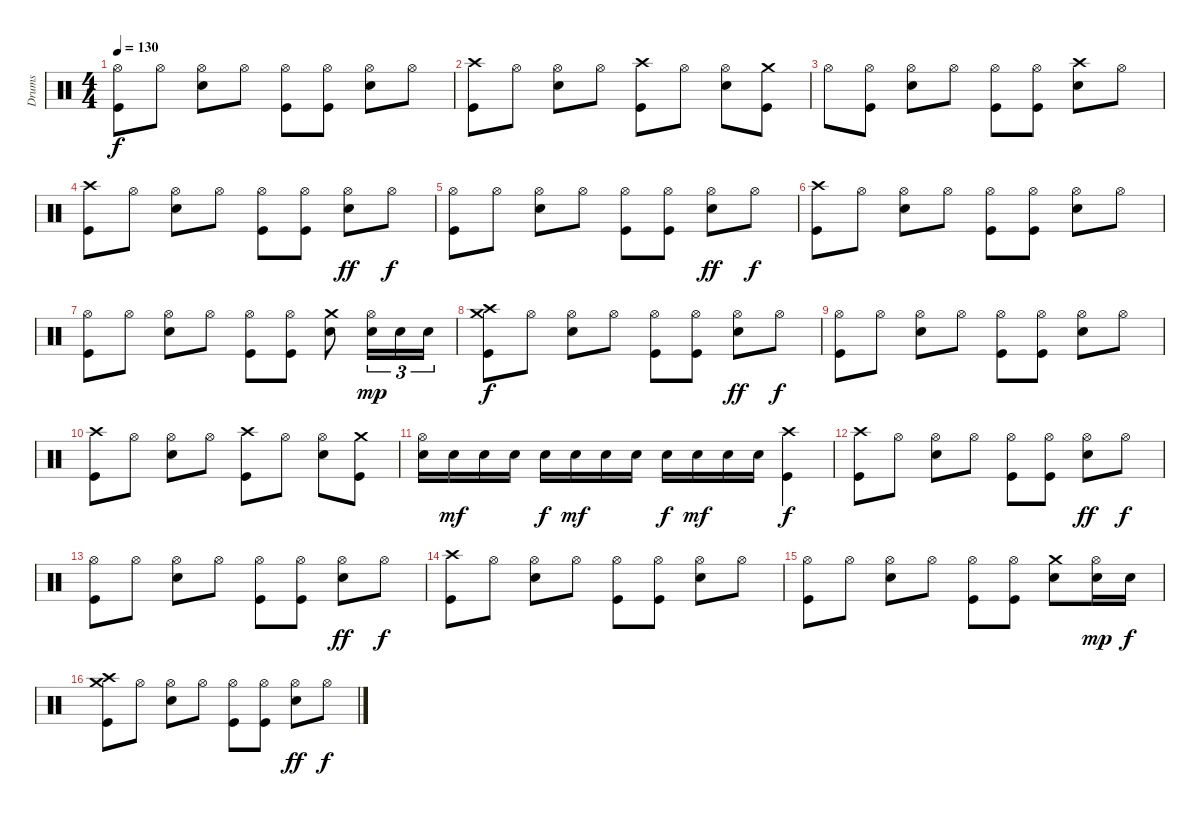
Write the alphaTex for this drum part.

\track ("Drums" "Drums") {instrument percussion}
\staff {score}
\articulation defaults
\ts (4 4)
\tempo 130
\clef neutral
\ks c
("Hi-Hat (open)" "Kick (hit)").8{dy f} "Hi-Hat (open)".8 ("Hi-Hat (open)" "Snare (hit) 2").8 "Hi-Hat (open)".8 ("Hi-Hat (open)" "Kick (hit)").8 ("Hi-Hat (open)" "Kick (hit)").8 ("Hi-Hat (open)" "Snare (hit) 2").8 "Hi-Hat (open)".8 |
("Crash high (hit)" "Kick (hit)").8 "Hi-Hat (open)".8 ("Hi-Hat (open)" "Snare (hit) 2").8 "Hi-Hat (open)".8 ("Crash high (hit)" "Kick (hit)").8 "Hi-Hat (open)".8 ("Hi-Hat (open)" "Snare (hit) 2").8 ("Crash medium (hit)" "Kick (hit)").8 |
"Hi-Hat (open)".8 ("Hi-Hat (open)" "Kick (hit)").8 ("Hi-Hat (open)" "Snare (hit) 2").8 "Hi-Hat (open)".8 ("Hi-Hat (open)" "Kick (hit)").8 ("Hi-Hat (open)" "Kick (hit)").8 ("Crash high (hit)" "Snare (hit) 2").8 "Hi-Hat (open)".8 |
("Crash high (hit)" "Kick (hit)").8 "Hi-Hat (open)".8 ("Hi-Hat (open)" "Snare (hit) 2").8 "Hi-Hat (open)".8 ("Hi-Hat (open)" "Kick (hit)").8 ("Hi-Hat (open)" "Kick (hit)").8 ("Hi-Hat (open)" "Snare (hit) 2").8{dy ff} "Hi-Hat (open)".8{dy f} |
("Hi-Hat (open)" "Kick (hit)").8 "Hi-Hat (open)".8 ("Hi-Hat (open)" "Snare (hit) 2").8 "Hi-Hat (open)".8 ("Hi-Hat (open)" "Kick (hit)").8 ("Hi-Hat (open)" "Kick (hit)").8 ("Hi-Hat (open)" "Snare (hit) 2").8{dy ff} "Hi-Hat (open)".8{dy f} |
("Crash high (hit)" "Kick (hit)").8 "Hi-Hat (open)".8 ("Hi-Hat (open)" "Snare (hit) 2").8 "Hi-Hat (open)".8 ("Hi-Hat (open)" "Kick (hit)").8 ("Hi-Hat (open)" "Kick (hit)").8 ("Hi-Hat (open)" "Snare (hit) 2").8 "Hi-Hat (open)".8 |
("Hi-Hat (open)" "Kick (hit)").8 "Hi-Hat (open)".8 ("Hi-Hat (open)" "Snare (hit) 2").8 "Hi-Hat (open)".8 ("Hi-Hat (open)" "Kick (hit)").8 ("Hi-Hat (open)" "Kick (hit)").8 ("Crash medium (hit)" "Snare (hit) 2").8 ("Hi-Hat (open)" "Snare (hit) 2").16{tu (3 2) dy mp} "Snare (hit) 2".16{tu (3 2)} "Snare (hit) 2".16{tu (3 2)} |
("Crash high (hit)" "Crash medium (hit)" "Kick (hit)").8{dy f} "Hi-Hat (open)".8 ("Hi-Hat (open)" "Snare (hit) 2").8 "Hi-Hat (open)".8 ("Hi-Hat (open)" "Kick (hit)").8 ("Hi-Hat (open)" "Kick (hit)").8 ("Hi-Hat (open)" "Snare (hit) 2").8{dy ff} "Hi-Hat (open)".8{dy f} |
("Hi-Hat (open)" "Kick (hit)").8 "Hi-Hat (open)".8 ("Hi-Hat (open)" "Snare (hit) 2").8 "Hi-Hat (open)".8 ("Hi-Hat (open)" "Kick (hit)").8 ("Hi-Hat (open)" "Kick (hit)").8 ("Hi-Hat (open)" "Snare (hit) 2").8 "Hi-Hat (open)".8 |
("Crash high (hit)" "Kick (hit)").8 "Hi-Hat (open)".8 ("Hi-Hat (open)" "Snare (hit) 2").8 "Hi-Hat (open)".8 ("Crash high (hit)" "Kick (hit)").8 "Hi-Hat (open)".8 ("Hi-Hat (open)" "Snare (hit) 2").8 ("Crash medium (hit)" "Kick (hit)").8 |
("Hi-Hat (open)" "Snare (hit) 2").16 "Snare (hit) 2".16{dy mf} "Snare (hit) 2".16 "Snare (hit) 2".16 "Snare (hit) 2".16{dy f} "Snare (hit) 2".16{dy mf} "Snare (hit) 2".16 "Snare (hit) 2".16 "Snare (hit) 2".16{dy f} "Snare (hit) 2".16{dy mf} "Snare (hit) 2".16 "Snare (hit) 2".16 ("Crash high (hit)" "Kick (hit)").4{dy f} |
("Crash high (hit)" "Kick (hit)").8 "Hi-Hat (open)".8 ("Hi-Hat (open)" "Snare (hit) 2").8 "Hi-Hat (open)".8 ("Hi-Hat (open)" "Kick (hit)").8 ("Hi-Hat (open)" "Kick (hit)").8 ("Hi-Hat (open)" "Snare (hit) 2").8{dy ff} "Hi-Hat (open)".8{dy f} |
("Hi-Hat (open)" "Kick (hit)").8 "Hi-Hat (open)".8 ("Hi-Hat (open)" "Snare (hit) 2").8 "Hi-Hat (open)".8 ("Hi-Hat (open)" "Kick (hit)").8 ("Hi-Hat (open)" "Kick (hit)").8 ("Hi-Hat (open)" "Snare (hit) 2").8{dy ff} "Hi-Hat (open)".8{dy f} |
("Crash high (hit)" "Kick (hit)").8 "Hi-Hat (open)".8 ("Hi-Hat (open)" "Snare (hit) 2").8 "Hi-Hat (open)".8 ("Hi-Hat (open)" "Kick (hit)").8 ("Hi-Hat (open)" "Kick (hit)").8 ("Hi-Hat (open)" "Snare (hit) 2").8 "Hi-Hat (open)".8 |
("Hi-Hat (open)" "Kick (hit)").8 "Hi-Hat (open)".8 ("Hi-Hat (open)" "Snare (hit) 2").8 "Hi-Hat (open)".8 ("Hi-Hat (open)" "Kick (hit)").8 ("Hi-Hat (open)" "Kick (hit)").8 ("Crash medium (hit)" "Snare (hit) 2").8 ("Hi-Hat (open)" "Snare (hit) 2").16{dy mp} "Snare (hit) 2".16{dy f} |
("Crash high (hit)" "Crash medium (hit)" "Kick (hit)").8 "Hi-Hat (open)".8 ("Hi-Hat (open)" "Snare (hit) 2").8 "Hi-Hat (open)".8 ("Hi-Hat (open)" "Kick (hit)").8 ("Hi-Hat (open)" "Kick (hit)").8 ("Hi-Hat (open)" "Snare (hit) 2").8{dy ff} "Hi-Hat (open)".8{dy f}
